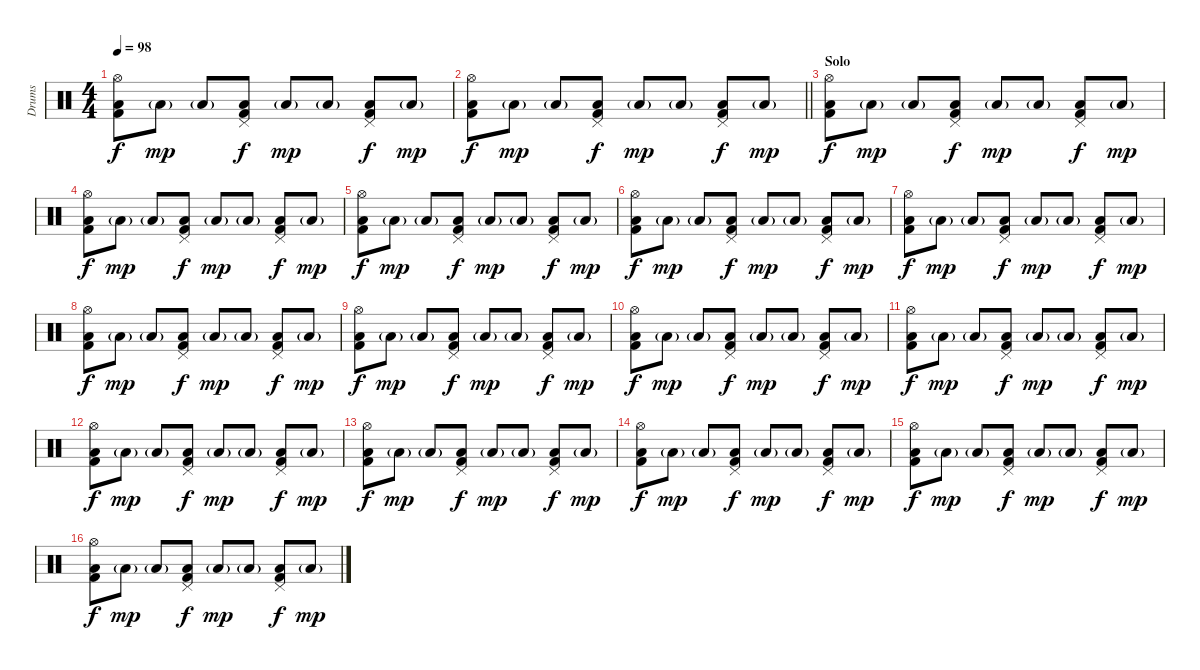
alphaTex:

\track ("Drums" "Drums") {instrument percussion}
\staff {score}
\articulation defaults
\ts (4 4)
\tempo 98
\clef neutral
\ks c
("Hi-Hat (open)" "Kick (hit) 2" "Low Tom (hit)").8{dy f} "Low Tom (hit)"{g}.8{dy mp} "Low Tom (hit)"{g}.8 ("Pedal Hi-Hat (hit)" "Kick (hit) 2" "Low Tom (hit)").8{dy f} "Low Tom (hit)"{g}.8{dy mp} "Low Tom (hit)"{g}.8 ("Pedal Hi-Hat (hit)" "Kick (hit) 2" "Low Tom (hit)").8{dy f} "Low Tom (hit)"{g}.8{dy mp} |
\barLineRight lightlight
("Hi-Hat (open)" "Kick (hit) 2" "Low Tom (hit)").8{dy f} "Low Tom (hit)"{g}.8{dy mp} "Low Tom (hit)"{g}.8 ("Pedal Hi-Hat (hit)" "Kick (hit) 2" "Low Tom (hit)").8{dy f} "Low Tom (hit)"{g}.8{dy mp} "Low Tom (hit)"{g}.8 ("Pedal Hi-Hat (hit)" "Kick (hit) 2" "Low Tom (hit)").8{dy f} "Low Tom (hit)"{g}.8{dy mp} |
\section ("" "Solo")
("Hi-Hat (open)" "Kick (hit) 2" "Low Tom (hit)").8{dy f} "Low Tom (hit)"{g}.8{dy mp} "Low Tom (hit)"{g}.8 ("Pedal Hi-Hat (hit)" "Kick (hit) 2" "Low Tom (hit)").8{dy f} "Low Tom (hit)"{g}.8{dy mp} "Low Tom (hit)"{g}.8 ("Pedal Hi-Hat (hit)" "Kick (hit) 2" "Low Tom (hit)").8{dy f} "Low Tom (hit)"{g}.8{dy mp} |
("Hi-Hat (open)" "Kick (hit) 2" "Low Tom (hit)").8{dy f} "Low Tom (hit)"{g}.8{dy mp} "Low Tom (hit)"{g}.8 ("Pedal Hi-Hat (hit)" "Kick (hit) 2" "Low Tom (hit)").8{dy f} "Low Tom (hit)"{g}.8{dy mp} "Low Tom (hit)"{g}.8 ("Pedal Hi-Hat (hit)" "Kick (hit) 2" "Low Tom (hit)").8{dy f} "Low Tom (hit)"{g}.8{dy mp} |
("Hi-Hat (open)" "Kick (hit) 2" "Low Tom (hit)").8{dy f} "Low Tom (hit)"{g}.8{dy mp} "Low Tom (hit)"{g}.8 ("Pedal Hi-Hat (hit)" "Kick (hit) 2" "Low Tom (hit)").8{dy f} "Low Tom (hit)"{g}.8{dy mp} "Low Tom (hit)"{g}.8 ("Pedal Hi-Hat (hit)" "Kick (hit) 2" "Low Tom (hit)").8{dy f} "Low Tom (hit)"{g}.8{dy mp} |
("Hi-Hat (open)" "Kick (hit) 2" "Low Tom (hit)").8{dy f} "Low Tom (hit)"{g}.8{dy mp} "Low Tom (hit)"{g}.8 ("Pedal Hi-Hat (hit)" "Kick (hit) 2" "Low Tom (hit)").8{dy f} "Low Tom (hit)"{g}.8{dy mp} "Low Tom (hit)"{g}.8 ("Pedal Hi-Hat (hit)" "Kick (hit) 2" "Low Tom (hit)").8{dy f} "Low Tom (hit)"{g}.8{dy mp} |
("Hi-Hat (open)" "Kick (hit) 2" "Low Tom (hit)").8{dy f} "Low Tom (hit)"{g}.8{dy mp} "Low Tom (hit)"{g}.8 ("Pedal Hi-Hat (hit)" "Kick (hit) 2" "Low Tom (hit)").8{dy f} "Low Tom (hit)"{g}.8{dy mp} "Low Tom (hit)"{g}.8 ("Pedal Hi-Hat (hit)" "Kick (hit) 2" "Low Tom (hit)").8{dy f} "Low Tom (hit)"{g}.8{dy mp} |
("Hi-Hat (open)" "Kick (hit) 2" "Low Tom (hit)").8{dy f} "Low Tom (hit)"{g}.8{dy mp} "Low Tom (hit)"{g}.8 ("Pedal Hi-Hat (hit)" "Kick (hit) 2" "Low Tom (hit)").8{dy f} "Low Tom (hit)"{g}.8{dy mp} "Low Tom (hit)"{g}.8 ("Pedal Hi-Hat (hit)" "Kick (hit) 2" "Low Tom (hit)").8{dy f} "Low Tom (hit)"{g}.8{dy mp} |
("Hi-Hat (open)" "Kick (hit) 2" "Low Tom (hit)").8{dy f} "Low Tom (hit)"{g}.8{dy mp} "Low Tom (hit)"{g}.8 ("Pedal Hi-Hat (hit)" "Kick (hit) 2" "Low Tom (hit)").8{dy f} "Low Tom (hit)"{g}.8{dy mp} "Low Tom (hit)"{g}.8 ("Pedal Hi-Hat (hit)" "Kick (hit) 2" "Low Tom (hit)").8{dy f} "Low Tom (hit)"{g}.8{dy mp} |
("Hi-Hat (open)" "Kick (hit) 2" "Low Tom (hit)").8{dy f} "Low Tom (hit)"{g}.8{dy mp} "Low Tom (hit)"{g}.8 ("Pedal Hi-Hat (hit)" "Kick (hit) 2" "Low Tom (hit)").8{dy f} "Low Tom (hit)"{g}.8{dy mp} "Low Tom (hit)"{g}.8 ("Pedal Hi-Hat (hit)" "Kick (hit) 2" "Low Tom (hit)").8{dy f} "Low Tom (hit)"{g}.8{dy mp} |
("Hi-Hat (open)" "Kick (hit) 2" "Low Tom (hit)").8{dy f} "Low Tom (hit)"{g}.8{dy mp} "Low Tom (hit)"{g}.8 ("Pedal Hi-Hat (hit)" "Kick (hit) 2" "Low Tom (hit)").8{dy f} "Low Tom (hit)"{g}.8{dy mp} "Low Tom (hit)"{g}.8 ("Pedal Hi-Hat (hit)" "Kick (hit) 2" "Low Tom (hit)").8{dy f} "Low Tom (hit)"{g}.8{dy mp} |
("Hi-Hat (open)" "Kick (hit) 2" "Low Tom (hit)").8{dy f} "Low Tom (hit)"{g}.8{dy mp} "Low Tom (hit)"{g}.8 ("Pedal Hi-Hat (hit)" "Kick (hit) 2" "Low Tom (hit)").8{dy f} "Low Tom (hit)"{g}.8{dy mp} "Low Tom (hit)"{g}.8 ("Pedal Hi-Hat (hit)" "Kick (hit) 2" "Low Tom (hit)").8{dy f} "Low Tom (hit)"{g}.8{dy mp} |
("Hi-Hat (open)" "Kick (hit) 2" "Low Tom (hit)").8{dy f} "Low Tom (hit)"{g}.8{dy mp} "Low Tom (hit)"{g}.8 ("Pedal Hi-Hat (hit)" "Kick (hit) 2" "Low Tom (hit)").8{dy f} "Low Tom (hit)"{g}.8{dy mp} "Low Tom (hit)"{g}.8 ("Pedal Hi-Hat (hit)" "Kick (hit) 2" "Low Tom (hit)").8{dy f} "Low Tom (hit)"{g}.8{dy mp} |
("Hi-Hat (open)" "Kick (hit) 2" "Low Tom (hit)").8{dy f} "Low Tom (hit)"{g}.8{dy mp} "Low Tom (hit)"{g}.8 ("Pedal Hi-Hat (hit)" "Kick (hit) 2" "Low Tom (hit)").8{dy f} "Low Tom (hit)"{g}.8{dy mp} "Low Tom (hit)"{g}.8 ("Pedal Hi-Hat (hit)" "Kick (hit) 2" "Low Tom (hit)").8{dy f} "Low Tom (hit)"{g}.8{dy mp} |
("Hi-Hat (open)" "Kick (hit) 2" "Low Tom (hit)").8{dy f} "Low Tom (hit)"{g}.8{dy mp} "Low Tom (hit)"{g}.8 ("Pedal Hi-Hat (hit)" "Kick (hit) 2" "Low Tom (hit)").8{dy f} "Low Tom (hit)"{g}.8{dy mp} "Low Tom (hit)"{g}.8 ("Pedal Hi-Hat (hit)" "Kick (hit) 2" "Low Tom (hit)").8{dy f} "Low Tom (hit)"{g}.8{dy mp} |
("Hi-Hat (open)" "Kick (hit) 2" "Low Tom (hit)").8{dy f} "Low Tom (hit)"{g}.8{dy mp} "Low Tom (hit)"{g}.8 ("Pedal Hi-Hat (hit)" "Kick (hit) 2" "Low Tom (hit)").8{dy f} "Low Tom (hit)"{g}.8{dy mp} "Low Tom (hit)"{g}.8 ("Pedal Hi-Hat (hit)" "Kick (hit) 2" "Low Tom (hit)").8{dy f} "Low Tom (hit)"{g}.8{dy mp}
